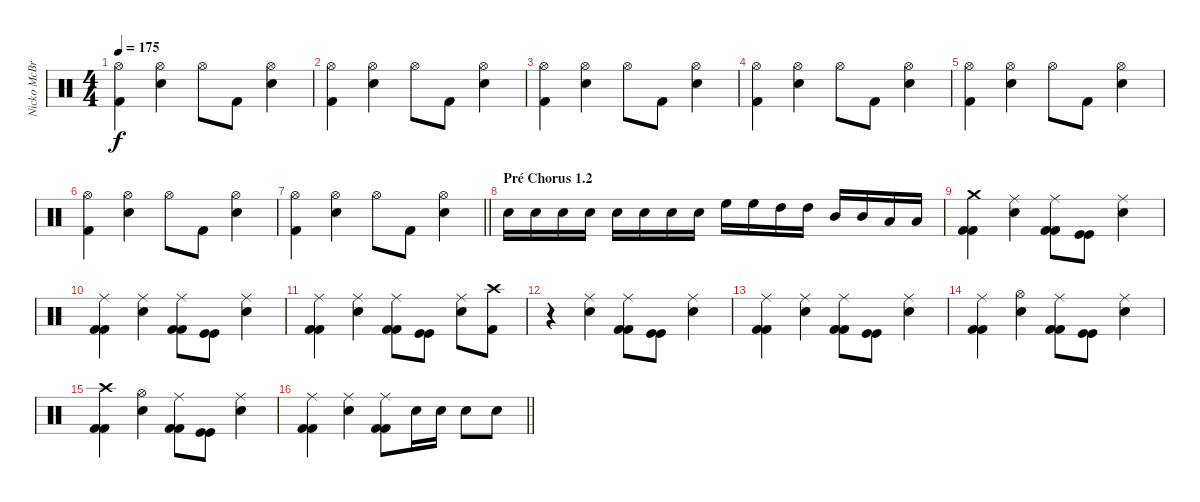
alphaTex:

\track ("Nicko McBrian" "Nicko McBr") {instrument percussion}
\staff {score}
\articulation defaults
\ts (4 4)
\tempo 175
\clef neutral
\ks c
("Hi-Hat (open)" "Kick (hit) 2").4{dy f} ("Hi-Hat (open)" "Snare (hit) 2").4 "Hi-Hat (open)".8 "Kick (hit) 2".8 ("Hi-Hat (open)" "Snare (hit) 2").4 |
("Hi-Hat (open)" "Kick (hit) 2").4 ("Hi-Hat (open)" "Snare (hit) 2").4 "Hi-Hat (open)".8 "Kick (hit) 2".8 ("Hi-Hat (open)" "Snare (hit) 2").4 |
("Hi-Hat (open)" "Kick (hit) 2").4 ("Hi-Hat (open)" "Snare (hit) 2").4 "Hi-Hat (open)".8 "Kick (hit) 2".8 ("Hi-Hat (open)" "Snare (hit) 2").4 |
("Hi-Hat (open)" "Kick (hit) 2").4 ("Hi-Hat (open)" "Snare (hit) 2").4 "Hi-Hat (open)".8 "Kick (hit) 2".8 ("Hi-Hat (open)" "Snare (hit) 2").4 |
("Hi-Hat (open)" "Kick (hit) 2").4 ("Hi-Hat (open)" "Snare (hit) 2").4 "Hi-Hat (open)".8 "Kick (hit) 2".8 ("Hi-Hat (open)" "Snare (hit) 2").4 |
("Hi-Hat (open)" "Kick (hit) 2").4 ("Hi-Hat (open)" "Snare (hit) 2").4 "Hi-Hat (open)".8 "Kick (hit) 2".8 ("Hi-Hat (open)" "Snare (hit) 2").4 |
\barLineRight lightlight
("Hi-Hat (open)" "Kick (hit) 2").4 ("Hi-Hat (open)" "Snare (hit) 2").4 "Hi-Hat (open)".8 "Kick (hit) 2".8 ("Hi-Hat (open)" "Snare (hit) 2").4 |
\section ("" "Pré Chorus 1.2")
"Snare (hit) 2".16 "Snare (hit) 2".16 "Snare (hit) 2".16 "Snare (hit) 2".16 "Snare (hit) 2".16 "Snare (hit) 2".16 "Snare (hit) 2".16 "Snare (hit) 2".16 "High Floor Tom (hit)".16 "High Floor Tom (hit)".16 "High Tom (hit)".16 "High Tom (hit)".16 "Mid Tom (hit)".16 "Mid Tom (hit)".16 "Low Tom (hit)".16 "Low Tom (hit)".16 |
("Crash medium (hit)" "Kick (hit) 2" "Kick (hit) 2").4 ("Ride (middle)" "Snare (hit) 2").4 ("Ride (middle)" "Kick (hit) 2" "Kick (hit) 2").8 ("Kick (hit)" "Kick (hit)").8 ("Ride (middle)" "Snare (hit) 2").4 |
("Ride (middle)" "Kick (hit) 2" "Kick (hit) 2").4 ("Ride (middle)" "Snare (hit) 2").4 ("Ride (middle)" "Kick (hit) 2" "Kick (hit) 2").8 ("Kick (hit)" "Kick (hit)").8 ("Ride (middle)" "Snare (hit) 2").4 |
("Ride (middle)" "Kick (hit) 2" "Kick (hit) 2").4 ("Ride (middle)" "Snare (hit) 2").4 ("Ride (middle)" "Kick (hit) 2" "Kick (hit) 2").8 ("Kick (hit)" "Kick (hit)").8 ("Ride (middle)" "Snare (hit) 2").8 ("Crash high (hit)" "Kick (hit) 2").8 |
r.4 ("Ride (middle)" "Snare (hit) 2").4 ("Ride (middle)" "Kick (hit) 2" "Kick (hit) 2").8 ("Kick (hit)" "Kick (hit)").8 ("Ride (middle)" "Snare (hit) 2").4 |
("Ride (middle)" "Kick (hit) 2" "Kick (hit) 2").4 ("Ride (middle)" "Snare (hit) 2").4 ("Ride (middle)" "Kick (hit) 2" "Kick (hit) 2").8 ("Kick (hit)" "Kick (hit)").8 ("Ride (middle)" "Snare (hit) 2").4 |
("Ride (middle)" "Kick (hit) 2" "Kick (hit) 2").4 ("Hi-Hat (open)" "Snare (hit) 2").4 ("Ride (middle)" "Kick (hit) 2" "Kick (hit) 2").8 ("Kick (hit)" "Kick (hit)").8 ("Ride (middle)" "Snare (hit) 2").4 |
("Crash high (hit)" "Kick (hit) 2" "Kick (hit) 2").4 ("Hi-Hat (open)" "Snare (hit) 2").4 ("Ride (middle)" "Kick (hit) 2" "Kick (hit) 2").8 ("Kick (hit)" "Kick (hit)").8 ("Ride (middle)" "Snare (hit) 2").4 |
\barLineRight lightlight
("Ride (middle)" "Kick (hit) 2" "Kick (hit) 2").4 ("Ride (middle)" "Snare (hit) 2").4 ("Ride (middle)" "Kick (hit) 2" "Kick (hit) 2").8 "Snare (hit) 2".16 "Snare (hit) 2".16 "Snare (hit) 2".8 "Snare (hit) 2".8
